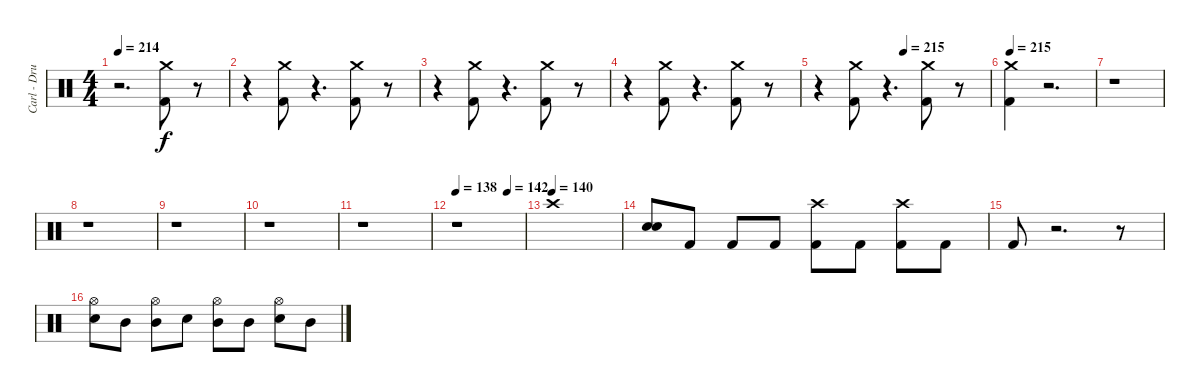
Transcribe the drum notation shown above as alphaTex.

\track ("Carl - Drums" "Carl - Dru") {instrument percussion}
\staff {score}
\articulation defaults
\ts (4 4)
\tempo 214
\clef neutral
\ks c
r.2{d dy f} ("Kick (hit) 2" "Crash medium (hit)").8 r.8 |
r.4 ("Kick (hit) 2" "Crash medium (hit)").8 r.4{d} ("Kick (hit) 2" "Crash medium (hit)").8 r.8 |
r.4 ("Kick (hit) 2" "Crash medium (hit)").8 r.4{d} ("Kick (hit) 2" "Crash medium (hit)").8 r.8 |
r.4 ("Kick (hit) 2" "Crash medium (hit)").8 r.4{d} ("Kick (hit) 2" "Crash medium (hit)").8 r.8 |
\tempo (215 0.5)
r.4 ("Kick (hit) 2" "Crash medium (hit)").8 r.4{d} ("Kick (hit) 2" "Crash medium (hit)").8 r.8 |
\tempo 215
("Kick (hit) 2" "Crash medium (hit)").4 r.2{d} |
r.1 |
r.1 |
r.1 |
r.1 |
r.1 |
\tempo 138
\tempo (142 0.75)
r.1 |
\tempo (140)
"Crash high (hit)".1 |
("Electric Snare (hit)" "Electric Snare (hit)").8{volume 16} "Kick (hit) 2".8 "Kick (hit) 2".8 "Kick (hit) 2".8 ("Kick (hit) 2" "Crash high (hit)").8 "Kick (hit) 2".8 ("Kick (hit) 2" "Crash high (hit)").8 "Kick (hit) 2".8 |
"Kick (hit) 2".8 r.2{d} r.8 |
("Electric Snare (hit)" "Hi-Hat (open)").8 "Mid Tom (hit)".8 ("Mid Tom (hit)" "Hi-Hat (open)").8 "Electric Snare (hit)".8 ("Mid Tom (hit)" "Hi-Hat (open)").8 "Mid Tom (hit)".8 ("Electric Snare (hit)" "Hi-Hat (open)").8 "Mid Tom (hit)".8
